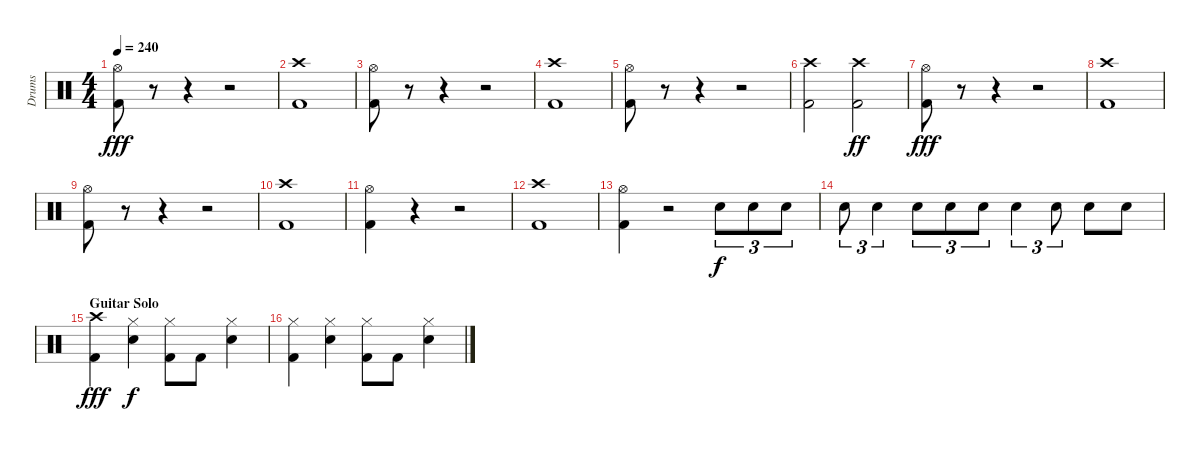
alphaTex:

\track ("Drums" "Drums") {instrument percussion}
\staff {score}
\articulation defaults
\ts (4 4)
\tempo 240
\clef neutral
\ks c
("Hi-Hat (open)" "Kick (hit) 2").8{dy fff} r.8 r.4 r.2 |
("Crash high (hit)" "Kick (hit) 2").1 |
("Hi-Hat (open)" "Kick (hit) 2").8 r.8 r.4 r.2 |
("Crash high (hit)" "Kick (hit) 2").1 |
("Hi-Hat (open)" "Kick (hit) 2").8 r.8 r.4 r.2 |
("Crash high (hit)" "Kick (hit) 2").2 ("Crash high (hit)" "Kick (hit) 2").2{dy ff} |
("Hi-Hat (open)" "Kick (hit) 2").8{dy fff} r.8 r.4 r.2 |
("Crash high (hit)" "Kick (hit) 2").1 |
("Hi-Hat (open)" "Kick (hit) 2").8 r.8 r.4 r.2 |
("Crash high (hit)" "Kick (hit) 2").1 |
("Hi-Hat (open)" "Kick (hit) 2").4 r.4 r.2 |
("Crash high (hit)" "Kick (hit) 2").1 |
("Hi-Hat (open)" "Kick (hit) 2").4 r.2 "Snare (hit) 2".8{tu (3 2) dy f} "Snare (hit) 2".8{tu (3 2)} "Snare (hit) 2".8{tu (3 2)} |
"Snare (hit) 2".8{tu (3 2)} "Snare (hit) 2".4{tu (3 2)} "Snare (hit) 2".8{tu (3 2)} "Snare (hit) 2".8{tu (3 2)} "Snare (hit) 2".8{tu (3 2)} "Snare (hit) 2".4{tu (3 2)} "Snare (hit) 2".8{tu (3 2)} "Snare (hit) 2".8 "Snare (hit) 2".8 |
\section ("" "Guitar Solo")
("Crash high (hit)" "Kick (hit) 2").4{dy fff} ("Hi-Hat (closed)" "Snare (hit) 2").4{dy f} ("Hi-Hat (closed)" "Kick (hit) 2").8 "Kick (hit) 2".8 ("Hi-Hat (closed)" "Snare (hit) 2").4 |
("Hi-Hat (closed)" "Kick (hit) 2").4 ("Hi-Hat (closed)" "Snare (hit) 2").4 ("Hi-Hat (closed)" "Kick (hit) 2").8 "Kick (hit) 2".8 ("Hi-Hat (closed)" "Snare (hit) 2").4
